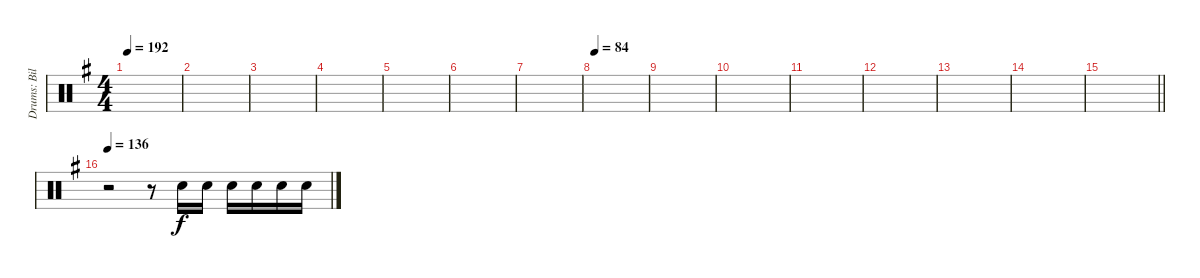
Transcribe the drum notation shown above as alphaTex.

\track ("Drums: Bill" "Drums: Bil") {instrument percussion}
\staff {score}
\articulation defaults
\ts (4 4)
\tempo 192
\clef neutral
\ks g
|
|
|
|
|
|
|
\tempo 84
|
|
|
|
|
|
|
\barLineRight lightlight
|
\tempo 136
r.2 r.8 "Snare (hit) 2".16 "Snare (hit) 2".16 "Snare (hit) 2".16 "Snare (hit) 2".16 "Snare (hit) 2".16 "Snare (hit) 2".16
